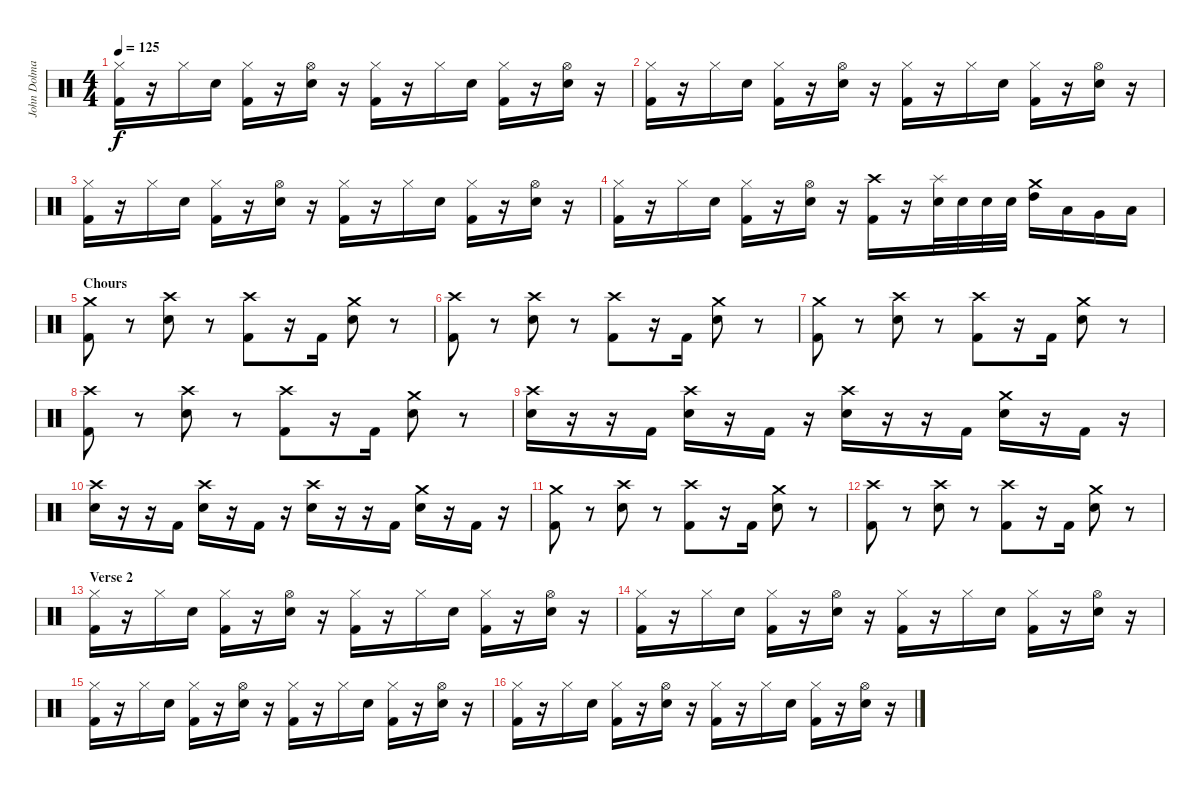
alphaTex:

\track ("John Dolmayan" "John Dolma") {instrument percussion}
\staff {score}
\articulation defaults
\ts (4 4)
\tempo 125
\clef neutral
\ks c
("Hi-Hat (closed)" "Kick (hit) 2").16{dy f} r.16 "Hi-Hat (closed)".16 "Electric Snare (hit)".16 ("Hi-Hat (closed)" "Kick (hit) 2").16 r.16 ("Hi-Hat (open)" "Electric Snare (hit)").16 r.16 ("Hi-Hat (closed)" "Kick (hit) 2").16 r.16 "Hi-Hat (closed)".16 "Electric Snare (hit)".16 ("Hi-Hat (closed)" "Kick (hit) 2").16 r.16 ("Hi-Hat (open)" "Electric Snare (hit)").16 r.16 |
("Hi-Hat (closed)" "Kick (hit) 2").16 r.16 "Hi-Hat (closed)".16 "Electric Snare (hit)".16 ("Hi-Hat (closed)" "Kick (hit) 2").16 r.16 ("Hi-Hat (open)" "Electric Snare (hit)").16 r.16 ("Hi-Hat (closed)" "Kick (hit) 2").16 r.16 "Hi-Hat (closed)".16 "Electric Snare (hit)".16 ("Hi-Hat (closed)" "Kick (hit) 2").16 r.16 ("Hi-Hat (open)" "Electric Snare (hit)").16 r.16 |
("Hi-Hat (closed)" "Kick (hit) 2").16 r.16 "Hi-Hat (closed)".16 "Electric Snare (hit)".16 ("Hi-Hat (closed)" "Kick (hit) 2").16 r.16 ("Hi-Hat (open)" "Electric Snare (hit)").16 r.16 ("Hi-Hat (closed)" "Kick (hit) 2").16 r.16 "Hi-Hat (closed)".16 "Electric Snare (hit)".16 ("Hi-Hat (closed)" "Kick (hit) 2").16 r.16 ("Hi-Hat (open)" "Electric Snare (hit)").16 r.16 |
("Hi-Hat (closed)" "Kick (hit) 2").16 r.16 "Hi-Hat (closed)".16 "Electric Snare (hit)".16 ("Hi-Hat (closed)" "Kick (hit) 2").16 r.16 ("Hi-Hat (open)" "Electric Snare (hit)").16 r.16 ("Crash high (hit)" "Kick (hit) 2").16 r.16 ("Splash (hit)" "Electric Snare (hit)").32 "Electric Snare (hit)".32 "Electric Snare (hit)".32 "Electric Snare (hit)".32 ("Crash medium (hit)" "High Tom (hit)").16 "Low Tom (hit)".16 "Very Low Tom (hit)".16 "Low Floor Tom (hit)".16 |
\section ("" "Chours")
("Crash medium (hit)" "Kick (hit) 2").8 r.8 ("Crash high (hit)" "Electric Snare (hit)").8 r.8 ("Crash high (hit)" "Kick (hit) 2").8 r.16 "Kick (hit) 2".16 ("Crash medium (hit)" "Electric Snare (hit)").8 r.8 |
("Crash high (hit)" "Kick (hit) 2").8 r.8 ("Crash high (hit)" "Electric Snare (hit)").8 r.8 ("Crash high (hit)" "Kick (hit) 2").8 r.16 "Kick (hit) 2".16 ("Crash medium (hit)" "Electric Snare (hit)").8 r.8 |
("Crash medium (hit)" "Kick (hit) 2").8 r.8 ("Crash high (hit)" "Electric Snare (hit)").8 r.8 ("Crash high (hit)" "Kick (hit) 2").8 r.16 "Kick (hit) 2".16 ("Crash medium (hit)" "Electric Snare (hit)").8 r.8 |
("Crash high (hit)" "Kick (hit) 2").8 r.8 ("Crash high (hit)" "Electric Snare (hit)").8 r.8 ("Crash high (hit)" "Kick (hit) 2").8 r.16 "Kick (hit) 2".16 ("Crash medium (hit)" "Electric Snare (hit)").8 r.8 |
("Crash high (hit)" "Electric Snare (hit)").16 r.16 r.16 "Kick (hit) 2".16 ("Crash high (hit)" "Electric Snare (hit)").16 r.16 "Kick (hit) 2".16 r.16 ("Crash high (hit)" "Electric Snare (hit)").16 r.16 r.16 "Kick (hit) 2".16 ("Crash medium (hit)" "Electric Snare (hit)").16 r.16 "Kick (hit) 2".16 r.16 |
("Crash high (hit)" "Electric Snare (hit)").16 r.16 r.16 "Kick (hit) 2".16 ("Crash high (hit)" "Electric Snare (hit)").16 r.16 "Kick (hit) 2".16 r.16 ("Crash high (hit)" "Electric Snare (hit)").16 r.16 r.16 "Kick (hit) 2".16 ("Crash medium (hit)" "Electric Snare (hit)").16 r.16 "Kick (hit) 2".16 r.16 |
("Crash medium (hit)" "Kick (hit) 2").8 r.8 ("Crash high (hit)" "Electric Snare (hit)").8 r.8 ("Crash high (hit)" "Kick (hit) 2").8 r.16 "Kick (hit) 2".16 ("Crash medium (hit)" "Electric Snare (hit)").8 r.8 |
("Crash high (hit)" "Kick (hit) 2").8 r.8 ("Crash high (hit)" "Electric Snare (hit)").8 r.8 ("Crash high (hit)" "Kick (hit) 2").8 r.16 "Kick (hit) 2".16 ("Crash medium (hit)" "Electric Snare (hit)").8 r.8 |
\section ("" "Verse 2")
("Hi-Hat (closed)" "Kick (hit) 2").16 r.16 "Hi-Hat (closed)".16 "Electric Snare (hit)".16 ("Hi-Hat (closed)" "Kick (hit) 2").16 r.16 ("Hi-Hat (open)" "Electric Snare (hit)").16 r.16 ("Hi-Hat (closed)" "Kick (hit) 2").16 r.16 "Hi-Hat (closed)".16 "Electric Snare (hit)".16 ("Hi-Hat (closed)" "Kick (hit) 2").16 r.16 ("Hi-Hat (open)" "Electric Snare (hit)").16 r.16 |
("Hi-Hat (closed)" "Kick (hit) 2").16 r.16 "Hi-Hat (closed)".16 "Electric Snare (hit)".16 ("Hi-Hat (closed)" "Kick (hit) 2").16 r.16 ("Hi-Hat (open)" "Electric Snare (hit)").16 r.16 ("Hi-Hat (closed)" "Kick (hit) 2").16 r.16 "Hi-Hat (closed)".16 "Electric Snare (hit)".16 ("Hi-Hat (closed)" "Kick (hit) 2").16 r.16 ("Hi-Hat (open)" "Electric Snare (hit)").16 r.16 |
("Hi-Hat (closed)" "Kick (hit) 2").16 r.16 "Hi-Hat (closed)".16 "Electric Snare (hit)".16 ("Hi-Hat (closed)" "Kick (hit) 2").16 r.16 ("Hi-Hat (open)" "Electric Snare (hit)").16 r.16 ("Hi-Hat (closed)" "Kick (hit) 2").16 r.16 "Hi-Hat (closed)".16 "Electric Snare (hit)".16 ("Hi-Hat (closed)" "Kick (hit) 2").16 r.16 ("Hi-Hat (open)" "Electric Snare (hit)").16 r.16 |
("Hi-Hat (closed)" "Kick (hit) 2").16 r.16 "Hi-Hat (closed)".16 "Electric Snare (hit)".16 ("Hi-Hat (closed)" "Kick (hit) 2").16 r.16 ("Hi-Hat (open)" "Electric Snare (hit)").16 r.16 ("Hi-Hat (closed)" "Kick (hit) 2").16 r.16 "Hi-Hat (closed)".16 "Electric Snare (hit)".16 ("Hi-Hat (closed)" "Kick (hit) 2").16 r.16 ("Hi-Hat (open)" "Electric Snare (hit)").16 r.16
